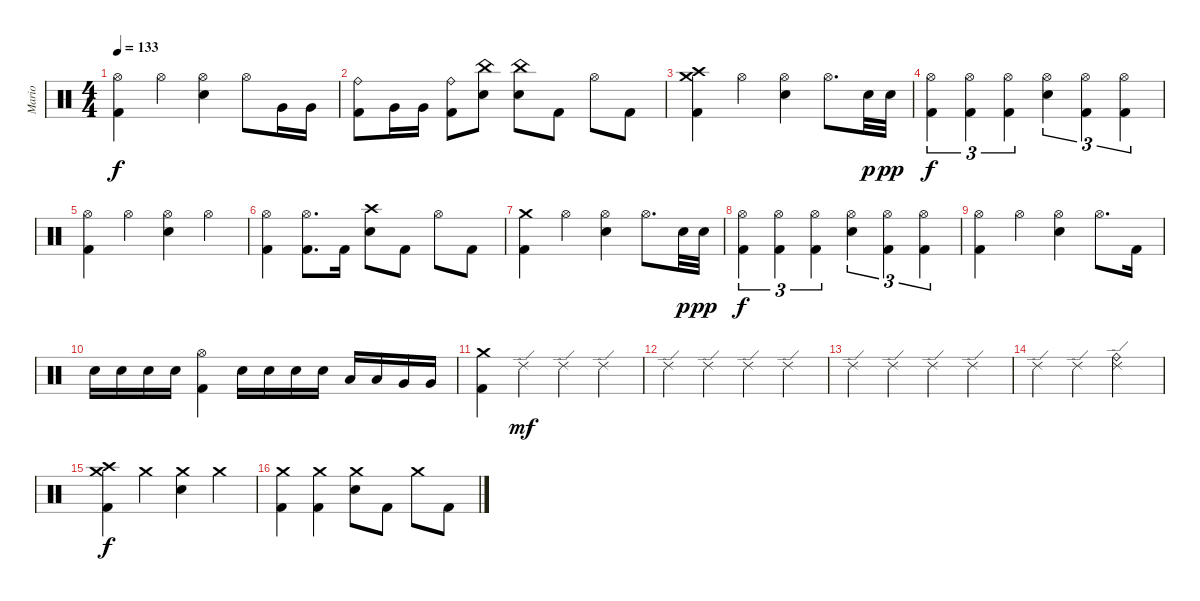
\track ("Mario" "Mario") {instrument percussion}
\staff {score}
\articulation defaults
\ts (4 4)
\tempo 133
\clef neutral
\ks c
("Hi-Hat (open)" "Kick (hit) 2").4{dy f} "Hi-Hat (open)".4 ("Hi-Hat (open)" "Electric Snare (hit)").4 "Hi-Hat (open)".8 "Very Low Tom (hit)".16 "Very Low Tom (hit)".16 |
("Ride (bell)" "Kick (hit) 2").8 "Very Low Tom (hit)".16 "Very Low Tom (hit)".16 ("Ride (bell)" "Kick (hit) 2").8 ("China (hit)" "Electric Snare (hit)").8 ("China (hit)" "Electric Snare (hit)").8 "Kick (hit) 2".8 "Hi-Hat (open)".8 "Kick (hit) 2".8 |
("Crash medium (hit)" "Crash high (hit)" "Kick (hit) 2").4 "Hi-Hat (open)".4 ("Hi-Hat (open)" "Electric Snare (hit)").4 "Hi-Hat (open)".8{d} "Electric Snare (hit)".32{dy p} "Electric Snare (hit)".32{dy pp} |
("Hi-Hat (open)" "Kick (hit) 2").4{tu (3 2) dy f} ("Hi-Hat (open)" "Kick (hit) 2").4{tu (3 2)} ("Hi-Hat (open)" "Kick (hit) 2").4{tu (3 2)} ("Hi-Hat (open)" "Electric Snare (hit)").4{tu (3 2)} ("Hi-Hat (open)" "Kick (hit) 2").4{tu (3 2)} ("Hi-Hat (open)" "Kick (hit) 2").4{tu (3 2)} |
("Hi-Hat (open)" "Kick (hit) 2").4 "Hi-Hat (open)".4 ("Hi-Hat (open)" "Electric Snare (hit)").4 "Hi-Hat (open)".4 |
("Hi-Hat (open)" "Kick (hit) 2").4 ("Hi-Hat (open)" "Kick (hit) 2").8{d} "Kick (hit) 2".16 ("Crash high (hit)" "Electric Snare (hit)").8 "Kick (hit) 2".8 "Hi-Hat (open)".8 "Kick (hit) 2".8 |
("Crash medium (hit)" "Kick (hit) 2").4 "Hi-Hat (open)".4 ("Hi-Hat (open)" "Electric Snare (hit)").4 "Hi-Hat (open)".8{d} "Electric Snare (hit)".32{dy p} "Electric Snare (hit)".32{dy pp} |
("Hi-Hat (open)" "Kick (hit) 2").4{tu (3 2) dy f} ("Hi-Hat (open)" "Kick (hit) 2").4{tu (3 2)} ("Hi-Hat (open)" "Kick (hit) 2").4{tu (3 2)} ("Hi-Hat (open)" "Electric Snare (hit)").4{tu (3 2)} ("Hi-Hat (open)" "Kick (hit) 2").4{tu (3 2)} ("Hi-Hat (open)" "Kick (hit) 2").4{tu (3 2)} |
("Hi-Hat (open)" "Kick (hit) 2").4 "Hi-Hat (open)".4 ("Hi-Hat (open)" "Electric Snare (hit)").4 "Hi-Hat (open)".8{d} "Kick (hit) 2".16 |
"Electric Snare (hit)".16 "Electric Snare (hit)".16 "Electric Snare (hit)".16 "Electric Snare (hit)".16 ("Hi-Hat (open)" "Kick (hit) 2").4 "Electric Snare (hit)".16 "Electric Snare (hit)".16 "Electric Snare (hit)".16 "Electric Snare (hit)".16 "Low Tom (hit)".16 "Low Tom (hit)".16 "Very Low Tom (hit)".16 "Very Low Tom (hit)".16 |
("Crash medium (hit)" "Kick (hit) 2").4 "Ride (edge) 2".4{dy mf} "Ride (edge) 2".4 "Ride (edge) 2".4 |
"Ride (edge) 2".4 "Ride (edge) 2".4 "Ride (edge) 2".4 "Ride (edge) 2".4 |
"Ride (edge) 2".4 "Ride (edge) 2".4 "Ride (edge) 2".4 "Ride (edge) 2".4 |
"Ride (edge) 2".4 "Ride (edge) 2".4 ("Ride (bell)" "Ride (edge) 2").2 |
("Crash medium (hit)" "Crash high (hit)" "Kick (hit) 2").4{dy f} "Crash medium (hit)".4 ("Crash medium (hit)" "Electric Snare (hit)").4 "Crash medium (hit)".4 |
("Crash medium (hit)" "Kick (hit) 2").4 ("Crash medium (hit)" "Kick (hit) 2").4 ("Crash medium (hit)" "Electric Snare (hit)").8 "Kick (hit) 2".8 "Crash medium (hit)".8 "Kick (hit) 2".8
